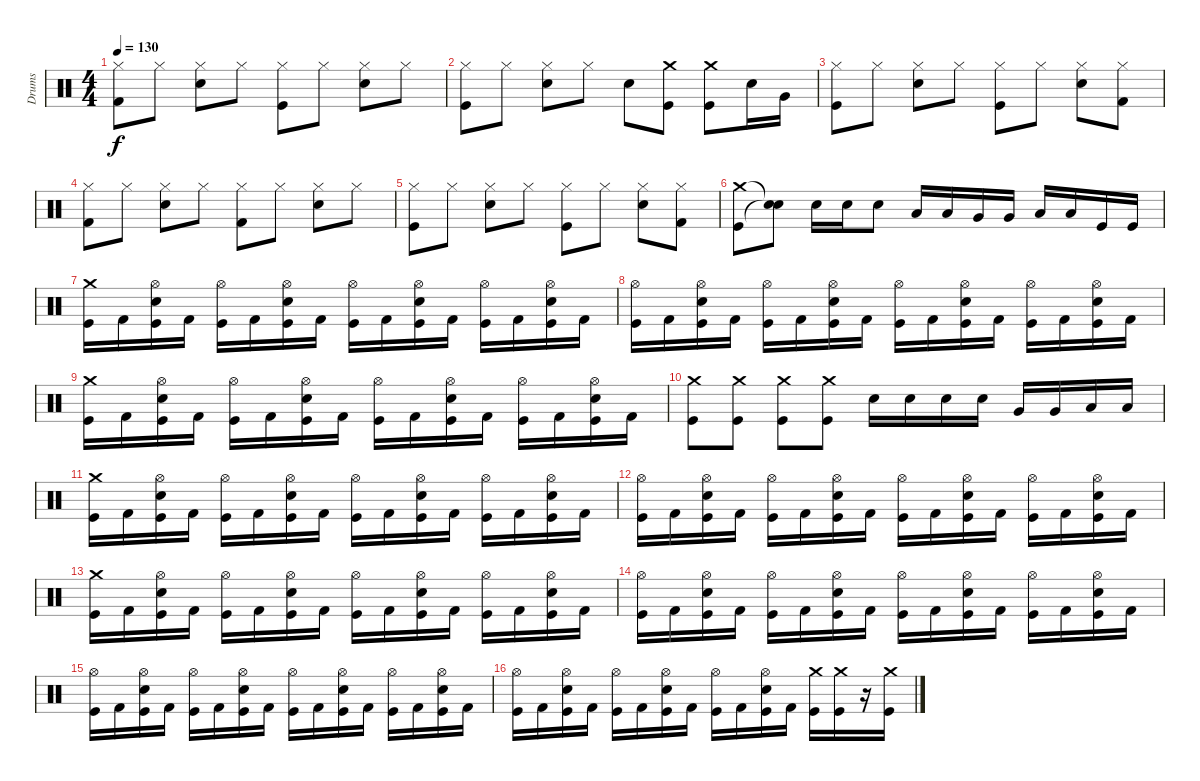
\track ("Drums" "Drums") {instrument percussion}
\staff {score}
\articulation defaults
\ts (4 4)
\tempo 130
\clef neutral
\ks c
("Hi-Hat (closed)" "Kick (hit) 2").8{dy f} "Hi-Hat (closed)".8 ("Hi-Hat (closed)" "Electric Snare (hit)").8 "Hi-Hat (closed)".8 ("Hi-Hat (closed)" "Kick (hit)").8 "Hi-Hat (closed)".8 ("Hi-Hat (closed)" "Electric Snare (hit)").8 "Hi-Hat (closed)".8 |
("Hi-Hat (closed)" "Kick (hit)").8 "Hi-Hat (closed)".8 ("Hi-Hat (closed)" "Electric Snare (hit)").8 "Hi-Hat (closed)".8 "Electric Snare (hit)".8 ("Crash medium (hit)" "Kick (hit)").8 ("Crash medium (hit)" "Kick (hit)").8 "Electric Snare (hit)".16 "Very Low Tom (hit)".16 |
("Hi-Hat (closed)" "Kick (hit)").8 "Hi-Hat (closed)".8 ("Hi-Hat (closed)" "Electric Snare (hit)").8 "Hi-Hat (closed)".8 ("Hi-Hat (closed)" "Kick (hit)").8 "Hi-Hat (closed)".8 ("Hi-Hat (closed)" "Electric Snare (hit)").8 ("Hi-Hat (closed)" "Kick (hit) 2").8 |
("Hi-Hat (closed)" "Kick (hit) 2").8 "Hi-Hat (closed)".8 ("Hi-Hat (closed)" "Electric Snare (hit)").8 "Hi-Hat (closed)".8 ("Hi-Hat (closed)" "Kick (hit) 2").8 "Hi-Hat (closed)".8 ("Hi-Hat (closed)" "Electric Snare (hit)").8 "Hi-Hat (closed)".8 |
("Hi-Hat (closed)" "Kick (hit)").8 "Hi-Hat (closed)".8 ("Hi-Hat (closed)" "Electric Snare (hit)").8 "Hi-Hat (closed)".8 ("Hi-Hat (closed)" "Kick (hit)").8 "Hi-Hat (closed)".8 ("Hi-Hat (closed)" "Electric Snare (hit)").8 ("Hi-Hat (closed)" "Kick (hit) 2").8 |
("Crash medium (hit)" "Kick (hit)").8 ("Snare (hit)"{t} "Snare (hit)"{t}).8 "Electric Snare (hit)".16 "Electric Snare (hit)".16 "Electric Snare (hit)".8 "Low Tom (hit)".16 "Low Tom (hit)".16 "Very Low Tom (hit)".16 "Very Low Tom (hit)".16 "Low Floor Tom (hit)".16 "Low Floor Tom (hit)".16 "Kick (hit)".16 "Kick (hit)".16 |
("Crash medium (hit)" "Kick (hit)").16 "Kick (hit) 2".16 ("Hi-Hat (open)" "Electric Snare (hit)" "Kick (hit)").16 "Kick (hit) 2".16 ("Hi-Hat (open)" "Kick (hit)").16 "Kick (hit) 2".16 ("Hi-Hat (open)" "Electric Snare (hit)" "Kick (hit)").16 "Kick (hit) 2".16 ("Hi-Hat (open)" "Kick (hit)").16 "Kick (hit) 2".16 ("Hi-Hat (open)" "Electric Snare (hit)" "Kick (hit)").16 "Kick (hit) 2".16 ("Hi-Hat (open)" "Kick (hit)").16 "Kick (hit) 2".16 ("Hi-Hat (open)" "Electric Snare (hit)" "Kick (hit)").16 "Kick (hit) 2".16 |
("Hi-Hat (open)" "Kick (hit)").16 "Kick (hit) 2".16 ("Hi-Hat (open)" "Electric Snare (hit)" "Kick (hit)").16 "Kick (hit) 2".16 ("Hi-Hat (open)" "Kick (hit)").16 "Kick (hit) 2".16 ("Hi-Hat (open)" "Electric Snare (hit)" "Kick (hit)").16 "Kick (hit) 2".16 ("Hi-Hat (open)" "Kick (hit)").16 "Kick (hit) 2".16 ("Hi-Hat (open)" "Electric Snare (hit)" "Kick (hit)").16 "Kick (hit) 2".16 ("Hi-Hat (open)" "Kick (hit)").16 "Kick (hit) 2".16 ("Hi-Hat (open)" "Electric Snare (hit)" "Kick (hit)").16 "Kick (hit) 2".16 |
("Crash medium (hit)" "Kick (hit)").16 "Kick (hit) 2".16 ("Hi-Hat (open)" "Electric Snare (hit)" "Kick (hit)").16 "Kick (hit) 2".16 ("Hi-Hat (open)" "Kick (hit)").16 "Kick (hit) 2".16 ("Hi-Hat (open)" "Electric Snare (hit)" "Kick (hit)").16 "Kick (hit) 2".16 ("Hi-Hat (open)" "Kick (hit)").16 "Kick (hit) 2".16 ("Hi-Hat (open)" "Electric Snare (hit)" "Kick (hit)").16 "Kick (hit) 2".16 ("Hi-Hat (open)" "Kick (hit)").16 "Kick (hit) 2".16 ("Hi-Hat (open)" "Electric Snare (hit)" "Kick (hit)").16 "Kick (hit) 2".16 |
("Crash medium (hit)" "Kick (hit)").8 ("Crash medium (hit)" "Kick (hit)").8 ("Crash medium (hit)" "Kick (hit)").8 ("Crash medium (hit)" "Kick (hit)").8 "Electric Snare (hit)".16 "Electric Snare (hit)".16 "Electric Snare (hit)".16 "Electric Snare (hit)".16 "Very Low Tom (hit)".16 "Very Low Tom (hit)".16 "Low Floor Tom (hit)".16 "Low Floor Tom (hit)".16 |
("Crash medium (hit)" "Kick (hit)").16 "Kick (hit) 2".16 ("Hi-Hat (open)" "Electric Snare (hit)" "Kick (hit)").16 "Kick (hit) 2".16 ("Hi-Hat (open)" "Kick (hit)").16 "Kick (hit) 2".16 ("Hi-Hat (open)" "Electric Snare (hit)" "Kick (hit)").16 "Kick (hit) 2".16 ("Hi-Hat (open)" "Kick (hit)").16 "Kick (hit) 2".16 ("Hi-Hat (open)" "Electric Snare (hit)" "Kick (hit)").16 "Kick (hit) 2".16 ("Hi-Hat (open)" "Kick (hit)").16 "Kick (hit) 2".16 ("Hi-Hat (open)" "Electric Snare (hit)" "Kick (hit)").16 "Kick (hit) 2".16 |
("Hi-Hat (open)" "Kick (hit)").16 "Kick (hit) 2".16 ("Hi-Hat (open)" "Electric Snare (hit)" "Kick (hit)").16 "Kick (hit) 2".16 ("Hi-Hat (open)" "Kick (hit)").16 "Kick (hit) 2".16 ("Hi-Hat (open)" "Electric Snare (hit)" "Kick (hit)").16 "Kick (hit) 2".16 ("Hi-Hat (open)" "Kick (hit)").16 "Kick (hit) 2".16 ("Hi-Hat (open)" "Electric Snare (hit)" "Kick (hit)").16 "Kick (hit) 2".16 ("Hi-Hat (open)" "Kick (hit)").16 "Kick (hit) 2".16 ("Hi-Hat (open)" "Electric Snare (hit)" "Kick (hit)").16 "Kick (hit) 2".16 |
("Crash medium (hit)" "Kick (hit)").16 "Kick (hit) 2".16 ("Hi-Hat (open)" "Electric Snare (hit)" "Kick (hit)").16 "Kick (hit) 2".16 ("Hi-Hat (open)" "Kick (hit)").16 "Kick (hit) 2".16 ("Hi-Hat (open)" "Electric Snare (hit)" "Kick (hit)").16 "Kick (hit) 2".16 ("Hi-Hat (open)" "Kick (hit)").16 "Kick (hit) 2".16 ("Hi-Hat (open)" "Electric Snare (hit)" "Kick (hit)").16 "Kick (hit) 2".16 ("Hi-Hat (open)" "Kick (hit)").16 "Kick (hit) 2".16 ("Hi-Hat (open)" "Electric Snare (hit)" "Kick (hit)").16 "Kick (hit) 2".16 |
("Hi-Hat (open)" "Kick (hit)").16 "Kick (hit) 2".16 ("Hi-Hat (open)" "Electric Snare (hit)" "Kick (hit)").16 "Kick (hit) 2".16 ("Hi-Hat (open)" "Kick (hit)").16 "Kick (hit) 2".16 ("Hi-Hat (open)" "Electric Snare (hit)" "Kick (hit)").16 "Kick (hit) 2".16 ("Hi-Hat (open)" "Kick (hit)").16 "Kick (hit) 2".16 ("Hi-Hat (open)" "Electric Snare (hit)" "Kick (hit)").16 "Kick (hit) 2".16 ("Hi-Hat (open)" "Kick (hit)").16 "Kick (hit) 2".16 ("Hi-Hat (open)" "Electric Snare (hit)" "Kick (hit)").16 "Kick (hit) 2".16 |
("Hi-Hat (open)" "Kick (hit)").16 "Kick (hit) 2".16 ("Hi-Hat (open)" "Electric Snare (hit)" "Kick (hit)").16 "Kick (hit) 2".16 ("Hi-Hat (open)" "Kick (hit)").16 "Kick (hit) 2".16 ("Hi-Hat (open)" "Electric Snare (hit)" "Kick (hit)").16 "Kick (hit) 2".16 ("Hi-Hat (open)" "Kick (hit)").16 "Kick (hit) 2".16 ("Hi-Hat (open)" "Electric Snare (hit)" "Kick (hit)").16 "Kick (hit) 2".16 ("Hi-Hat (open)" "Kick (hit)").16 "Kick (hit) 2".16 ("Hi-Hat (open)" "Electric Snare (hit)" "Kick (hit)").16 "Kick (hit) 2".16 |
("Hi-Hat (open)" "Kick (hit)").16 "Kick (hit) 2".16 ("Hi-Hat (open)" "Electric Snare (hit)" "Kick (hit)").16 "Kick (hit) 2".16 ("Hi-Hat (open)" "Kick (hit)").16 "Kick (hit) 2".16 ("Hi-Hat (open)" "Electric Snare (hit)" "Kick (hit)").16 "Kick (hit) 2".16 ("Hi-Hat (open)" "Kick (hit)").16 "Kick (hit) 2".16 ("Hi-Hat (open)" "Electric Snare (hit)" "Kick (hit)").16 "Kick (hit) 2".16 ("Crash medium (hit)" "Kick (hit)").16 ("Crash medium (hit)" "Kick (hit)").16 r.16 ("Crash medium (hit)" "Kick (hit)").16
